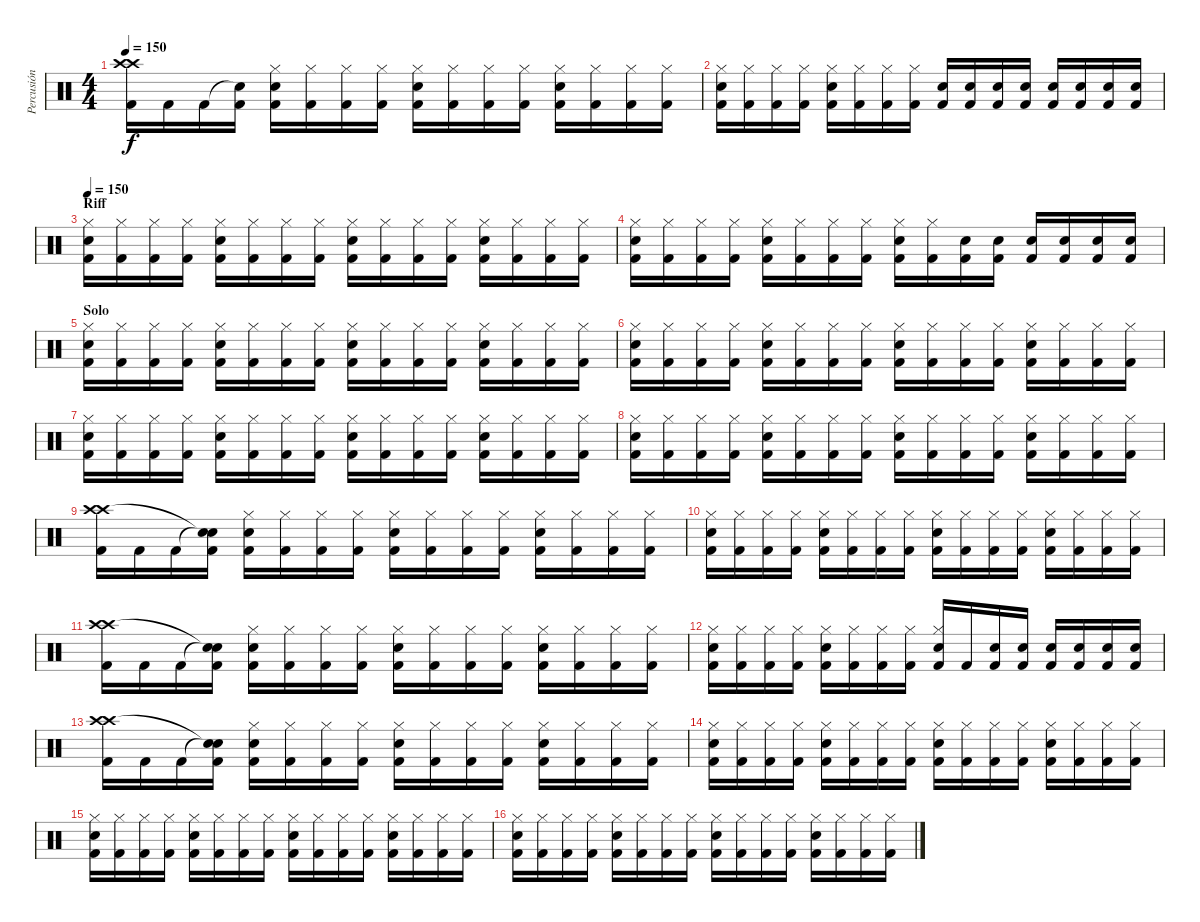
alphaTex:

\track ("Percusión" "Percusión") {instrument percussion}
\staff {score}
\articulation defaults
\ts (4 4)
\tempo 150
\clef neutral
\ks c
("Crash high (hit)" "Crash high (hit)" "Kick (hit) 2").16{dy f} "Kick (hit) 2".16 "Kick (hit) 2".16 ("Snare (hit)"{t} "Kick (hit) 2").16 ("Hi-Hat (closed)" "Electric Snare (hit)" "Kick (hit) 2").16 ("Hi-Hat (closed)" "Kick (hit) 2").16 ("Hi-Hat (closed)" "Kick (hit) 2").16 ("Hi-Hat (closed)" "Kick (hit) 2").16 ("Hi-Hat (closed)" "Electric Snare (hit)" "Kick (hit) 2").16 ("Hi-Hat (closed)" "Kick (hit) 2").16 ("Hi-Hat (closed)" "Kick (hit) 2").16 ("Hi-Hat (closed)" "Kick (hit) 2").16 ("Hi-Hat (closed)" "Electric Snare (hit)" "Kick (hit) 2").16 ("Hi-Hat (closed)" "Kick (hit) 2").16 ("Hi-Hat (closed)" "Kick (hit) 2").16 ("Hi-Hat (closed)" "Kick (hit) 2").16 |
("Hi-Hat (closed)" "Electric Snare (hit)" "Kick (hit) 2").16 ("Hi-Hat (closed)" "Kick (hit) 2").16 ("Hi-Hat (closed)" "Kick (hit) 2").16 ("Hi-Hat (closed)" "Kick (hit) 2").16 ("Hi-Hat (closed)" "Electric Snare (hit)" "Kick (hit) 2").16 ("Hi-Hat (closed)" "Kick (hit) 2").16 ("Hi-Hat (closed)" "Kick (hit) 2").16 ("Hi-Hat (closed)" "Kick (hit) 2").16 ("Electric Snare (hit)" "Kick (hit) 2").16 ("Electric Snare (hit)" "Kick (hit) 2").16 ("Electric Snare (hit)" "Kick (hit) 2").16 ("Electric Snare (hit)" "Kick (hit) 2").16 ("Electric Snare (hit)" "Kick (hit) 2").16 ("Electric Snare (hit)" "Kick (hit) 2").16 ("Electric Snare (hit)" "Kick (hit) 2").16 ("Electric Snare (hit)" "Kick (hit) 2").16 |
\section ("" "Riff")
\tempo 150
("Hi-Hat (closed)" "Electric Snare (hit)" "Kick (hit) 2").16 ("Hi-Hat (closed)" "Kick (hit) 2").16 ("Hi-Hat (closed)" "Kick (hit) 2").16 ("Hi-Hat (closed)" "Kick (hit) 2").16 ("Hi-Hat (closed)" "Electric Snare (hit)" "Kick (hit) 2").16 ("Hi-Hat (closed)" "Kick (hit) 2").16 ("Hi-Hat (closed)" "Kick (hit) 2").16 ("Hi-Hat (closed)" "Kick (hit) 2").16 ("Hi-Hat (closed)" "Electric Snare (hit)" "Kick (hit) 2").16 ("Hi-Hat (closed)" "Kick (hit) 2").16 ("Hi-Hat (closed)" "Kick (hit) 2").16 ("Hi-Hat (closed)" "Kick (hit) 2").16 ("Hi-Hat (closed)" "Electric Snare (hit)" "Kick (hit) 2").16 ("Hi-Hat (closed)" "Kick (hit) 2").16 ("Hi-Hat (closed)" "Kick (hit) 2").16 ("Hi-Hat (closed)" "Kick (hit) 2").16 |
("Hi-Hat (closed)" "Electric Snare (hit)" "Kick (hit) 2").16 ("Hi-Hat (closed)" "Kick (hit) 2").16 ("Hi-Hat (closed)" "Kick (hit) 2").16 ("Hi-Hat (closed)" "Kick (hit) 2").16 ("Hi-Hat (closed)" "Electric Snare (hit)" "Kick (hit) 2").16 ("Hi-Hat (closed)" "Kick (hit) 2").16 ("Hi-Hat (closed)" "Kick (hit) 2").16 ("Hi-Hat (closed)" "Kick (hit) 2").16 ("Hi-Hat (closed)" "Electric Snare (hit)" "Kick (hit) 2").16 ("Hi-Hat (closed)" "Kick (hit) 2").16 ("Electric Snare (hit)" "Kick (hit) 2").16 ("Electric Snare (hit)" "Kick (hit) 2").16 ("Electric Snare (hit)" "Kick (hit) 2").16 ("Electric Snare (hit)" "Kick (hit) 2").16 ("Electric Snare (hit)" "Kick (hit) 2").16 ("Electric Snare (hit)" "Kick (hit) 2").16 |
\section ("" "Solo")
("Hi-Hat (closed)" "Electric Snare (hit)" "Kick (hit) 2").16 ("Hi-Hat (closed)" "Kick (hit) 2").16 ("Hi-Hat (closed)" "Kick (hit) 2").16 ("Hi-Hat (closed)" "Kick (hit) 2").16 ("Hi-Hat (closed)" "Electric Snare (hit)" "Kick (hit) 2").16 ("Hi-Hat (closed)" "Kick (hit) 2").16 ("Hi-Hat (closed)" "Kick (hit) 2").16 ("Hi-Hat (closed)" "Kick (hit) 2").16 ("Hi-Hat (closed)" "Electric Snare (hit)" "Kick (hit) 2").16 ("Hi-Hat (closed)" "Kick (hit) 2").16 ("Hi-Hat (closed)" "Kick (hit) 2").16 ("Hi-Hat (closed)" "Kick (hit) 2").16 ("Hi-Hat (closed)" "Electric Snare (hit)" "Kick (hit) 2").16 ("Hi-Hat (closed)" "Kick (hit) 2").16 ("Hi-Hat (closed)" "Kick (hit) 2").16 ("Hi-Hat (closed)" "Kick (hit) 2").16 |
("Hi-Hat (closed)" "Electric Snare (hit)" "Kick (hit) 2").16 ("Hi-Hat (closed)" "Kick (hit) 2").16 ("Hi-Hat (closed)" "Kick (hit) 2").16 ("Hi-Hat (closed)" "Kick (hit) 2").16 ("Hi-Hat (closed)" "Electric Snare (hit)" "Kick (hit) 2").16 ("Hi-Hat (closed)" "Kick (hit) 2").16 ("Hi-Hat (closed)" "Kick (hit) 2").16 ("Hi-Hat (closed)" "Kick (hit) 2").16 ("Hi-Hat (closed)" "Electric Snare (hit)" "Kick (hit) 2").16 ("Hi-Hat (closed)" "Kick (hit) 2").16 ("Hi-Hat (closed)" "Kick (hit) 2").16 ("Hi-Hat (closed)" "Kick (hit) 2").16 ("Hi-Hat (closed)" "Electric Snare (hit)" "Kick (hit) 2").16 ("Hi-Hat (closed)" "Kick (hit) 2").16 ("Hi-Hat (closed)" "Kick (hit) 2").16 ("Hi-Hat (closed)" "Kick (hit) 2").16 |
("Hi-Hat (closed)" "Electric Snare (hit)" "Kick (hit) 2").16 ("Hi-Hat (closed)" "Kick (hit) 2").16 ("Hi-Hat (closed)" "Kick (hit) 2").16 ("Hi-Hat (closed)" "Kick (hit) 2").16 ("Hi-Hat (closed)" "Electric Snare (hit)" "Kick (hit) 2").16 ("Hi-Hat (closed)" "Kick (hit) 2").16 ("Hi-Hat (closed)" "Kick (hit) 2").16 ("Hi-Hat (closed)" "Kick (hit) 2").16 ("Hi-Hat (closed)" "Electric Snare (hit)" "Kick (hit) 2").16 ("Hi-Hat (closed)" "Kick (hit) 2").16 ("Hi-Hat (closed)" "Kick (hit) 2").16 ("Hi-Hat (closed)" "Kick (hit) 2").16 ("Hi-Hat (closed)" "Electric Snare (hit)" "Kick (hit) 2").16 ("Hi-Hat (closed)" "Kick (hit) 2").16 ("Hi-Hat (closed)" "Kick (hit) 2").16 ("Hi-Hat (closed)" "Kick (hit) 2").16 |
("Hi-Hat (closed)" "Electric Snare (hit)" "Kick (hit) 2").16 ("Hi-Hat (closed)" "Kick (hit) 2").16 ("Hi-Hat (closed)" "Kick (hit) 2").16 ("Hi-Hat (closed)" "Kick (hit) 2").16 ("Hi-Hat (closed)" "Electric Snare (hit)" "Kick (hit) 2").16 ("Hi-Hat (closed)" "Kick (hit) 2").16 ("Hi-Hat (closed)" "Kick (hit) 2").16 ("Hi-Hat (closed)" "Kick (hit) 2").16 ("Hi-Hat (closed)" "Electric Snare (hit)" "Kick (hit) 2").16 ("Hi-Hat (closed)" "Kick (hit) 2").16 ("Hi-Hat (closed)" "Kick (hit) 2").16 ("Hi-Hat (closed)" "Kick (hit) 2").16 ("Hi-Hat (closed)" "Electric Snare (hit)" "Kick (hit) 2").16 ("Hi-Hat (closed)" "Kick (hit) 2").16 ("Hi-Hat (closed)" "Kick (hit) 2").16 ("Hi-Hat (closed)" "Kick (hit) 2").16 |
("Crash high (hit)" "Crash high (hit)" "Kick (hit) 2").16 "Kick (hit) 2".16 "Kick (hit) 2".16 ("Snare (hit)"{t} "Snare (hit)"{t} "Kick (hit) 2").16 ("Hi-Hat (closed)" "Electric Snare (hit)" "Kick (hit) 2").16 ("Hi-Hat (closed)" "Kick (hit) 2").16 ("Hi-Hat (closed)" "Kick (hit) 2").16 ("Hi-Hat (closed)" "Kick (hit) 2").16 ("Hi-Hat (closed)" "Electric Snare (hit)" "Kick (hit) 2").16 ("Hi-Hat (closed)" "Kick (hit) 2").16 ("Hi-Hat (closed)" "Kick (hit) 2").16 ("Hi-Hat (closed)" "Kick (hit) 2").16 ("Hi-Hat (closed)" "Electric Snare (hit)" "Kick (hit) 2").16 ("Hi-Hat (closed)" "Kick (hit) 2").16 ("Hi-Hat (closed)" "Kick (hit) 2").16 ("Hi-Hat (closed)" "Kick (hit) 2").16 |
("Hi-Hat (closed)" "Electric Snare (hit)" "Kick (hit) 2").16 ("Hi-Hat (closed)" "Kick (hit) 2").16 ("Hi-Hat (closed)" "Kick (hit) 2").16 ("Hi-Hat (closed)" "Kick (hit) 2").16 ("Hi-Hat (closed)" "Electric Snare (hit)" "Kick (hit) 2").16 ("Hi-Hat (closed)" "Kick (hit) 2").16 ("Hi-Hat (closed)" "Kick (hit) 2").16 ("Hi-Hat (closed)" "Kick (hit) 2").16 ("Hi-Hat (closed)" "Electric Snare (hit)" "Kick (hit) 2").16 ("Hi-Hat (closed)" "Kick (hit) 2").16 ("Hi-Hat (closed)" "Kick (hit) 2").16 ("Hi-Hat (closed)" "Kick (hit) 2").16 ("Hi-Hat (closed)" "Electric Snare (hit)" "Kick (hit) 2").16 ("Hi-Hat (closed)" "Kick (hit) 2").16 ("Hi-Hat (closed)" "Kick (hit) 2").16 ("Hi-Hat (closed)" "Kick (hit) 2").16 |
("Crash high (hit)" "Crash high (hit)" "Kick (hit) 2").16 "Kick (hit) 2".16 "Kick (hit) 2".16 ("Snare (hit)"{t} "Snare (hit)"{t} "Kick (hit) 2").16 ("Hi-Hat (closed)" "Electric Snare (hit)" "Kick (hit) 2").16 ("Hi-Hat (closed)" "Kick (hit) 2").16 ("Hi-Hat (closed)" "Kick (hit) 2").16 ("Hi-Hat (closed)" "Kick (hit) 2").16 ("Hi-Hat (closed)" "Electric Snare (hit)" "Kick (hit) 2").16 ("Hi-Hat (closed)" "Kick (hit) 2").16 ("Hi-Hat (closed)" "Kick (hit) 2").16 ("Hi-Hat (closed)" "Kick (hit) 2").16 ("Hi-Hat (closed)" "Electric Snare (hit)" "Kick (hit) 2").16 ("Hi-Hat (closed)" "Kick (hit) 2").16 ("Hi-Hat (closed)" "Kick (hit) 2").16 ("Hi-Hat (closed)" "Kick (hit) 2").16 |
("Hi-Hat (closed)" "Electric Snare (hit)" "Kick (hit) 2").16 ("Hi-Hat (closed)" "Kick (hit) 2").16 ("Hi-Hat (closed)" "Kick (hit) 2").16 ("Hi-Hat (closed)" "Kick (hit) 2").16 ("Hi-Hat (closed)" "Electric Snare (hit)" "Kick (hit) 2").16 ("Hi-Hat (closed)" "Kick (hit) 2").16 ("Hi-Hat (closed)" "Kick (hit) 2").16 ("Hi-Hat (closed)" "Kick (hit) 2").16 ("Hi-Hat (closed)" "Electric Snare (hit)" "Kick (hit) 2").16 "Kick (hit) 2".16 ("Electric Snare (hit)" "Kick (hit) 2").16 ("Electric Snare (hit)" "Kick (hit) 2").16 ("Electric Snare (hit)" "Kick (hit) 2").16 ("Electric Snare (hit)" "Kick (hit) 2").16 ("Electric Snare (hit)" "Kick (hit) 2").16 ("Electric Snare (hit)" "Kick (hit) 2").16 |
("Crash high (hit)" "Crash high (hit)" "Kick (hit) 2").16 "Kick (hit) 2".16 "Kick (hit) 2".16 ("Snare (hit)"{t} "Snare (hit)"{t} "Kick (hit) 2").16 ("Hi-Hat (closed)" "Electric Snare (hit)" "Kick (hit) 2").16 ("Hi-Hat (closed)" "Kick (hit) 2").16 ("Hi-Hat (closed)" "Kick (hit) 2").16 ("Hi-Hat (closed)" "Kick (hit) 2").16 ("Hi-Hat (closed)" "Electric Snare (hit)" "Kick (hit) 2").16 ("Hi-Hat (closed)" "Kick (hit) 2").16 ("Hi-Hat (closed)" "Kick (hit) 2").16 ("Hi-Hat (closed)" "Kick (hit) 2").16 ("Hi-Hat (closed)" "Electric Snare (hit)" "Kick (hit) 2").16 ("Hi-Hat (closed)" "Kick (hit) 2").16 ("Hi-Hat (closed)" "Kick (hit) 2").16 ("Hi-Hat (closed)" "Kick (hit) 2").16 |
("Hi-Hat (closed)" "Electric Snare (hit)" "Kick (hit) 2").16 ("Hi-Hat (closed)" "Kick (hit) 2").16 ("Hi-Hat (closed)" "Kick (hit) 2").16 ("Hi-Hat (closed)" "Kick (hit) 2").16 ("Hi-Hat (closed)" "Electric Snare (hit)" "Kick (hit) 2").16 ("Hi-Hat (closed)" "Kick (hit) 2").16 ("Hi-Hat (closed)" "Kick (hit) 2").16 ("Hi-Hat (closed)" "Kick (hit) 2").16 ("Hi-Hat (closed)" "Electric Snare (hit)" "Kick (hit) 2").16 ("Hi-Hat (closed)" "Kick (hit) 2").16 ("Hi-Hat (closed)" "Kick (hit) 2").16 ("Hi-Hat (closed)" "Kick (hit) 2").16 ("Hi-Hat (closed)" "Electric Snare (hit)" "Kick (hit) 2").16 ("Hi-Hat (closed)" "Kick (hit) 2").16 ("Hi-Hat (closed)" "Kick (hit) 2").16 ("Hi-Hat (closed)" "Kick (hit) 2").16 |
("Hi-Hat (closed)" "Electric Snare (hit)" "Kick (hit) 2").16 ("Hi-Hat (closed)" "Kick (hit) 2").16 ("Hi-Hat (closed)" "Kick (hit) 2").16 ("Hi-Hat (closed)" "Kick (hit) 2").16 ("Hi-Hat (closed)" "Electric Snare (hit)" "Kick (hit) 2").16 ("Hi-Hat (closed)" "Kick (hit) 2").16 ("Hi-Hat (closed)" "Kick (hit) 2").16 ("Hi-Hat (closed)" "Kick (hit) 2").16 ("Hi-Hat (closed)" "Electric Snare (hit)" "Kick (hit) 2").16 ("Hi-Hat (closed)" "Kick (hit) 2").16 ("Hi-Hat (closed)" "Kick (hit) 2").16 ("Hi-Hat (closed)" "Kick (hit) 2").16 ("Hi-Hat (closed)" "Electric Snare (hit)" "Kick (hit) 2").16 ("Hi-Hat (closed)" "Kick (hit) 2").16 ("Hi-Hat (closed)" "Kick (hit) 2").16 ("Hi-Hat (closed)" "Kick (hit) 2").16 |
("Hi-Hat (closed)" "Electric Snare (hit)" "Kick (hit) 2").16 ("Hi-Hat (closed)" "Kick (hit) 2").16 ("Hi-Hat (closed)" "Kick (hit) 2").16 ("Hi-Hat (closed)" "Kick (hit) 2").16 ("Hi-Hat (closed)" "Electric Snare (hit)" "Kick (hit) 2").16 ("Hi-Hat (closed)" "Kick (hit) 2").16 ("Hi-Hat (closed)" "Kick (hit) 2").16 ("Hi-Hat (closed)" "Kick (hit) 2").16 ("Hi-Hat (closed)" "Electric Snare (hit)" "Kick (hit) 2").16 ("Hi-Hat (closed)" "Kick (hit) 2").16 ("Hi-Hat (closed)" "Kick (hit) 2").16 ("Hi-Hat (closed)" "Kick (hit) 2").16 ("Hi-Hat (closed)" "Electric Snare (hit)" "Kick (hit) 2").16 ("Hi-Hat (closed)" "Kick (hit) 2").16 ("Hi-Hat (closed)" "Kick (hit) 2").16 ("Hi-Hat (closed)" "Kick (hit) 2").16
